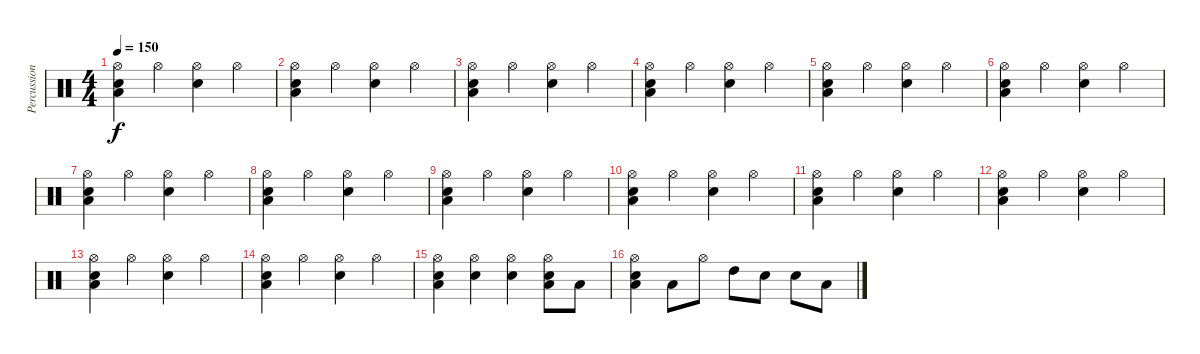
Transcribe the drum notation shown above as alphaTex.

\track ("Percussion" "Percussion") {instrument percussion}
\staff {score}
\articulation defaults
\ts (4 4)
\tempo 150
\clef neutral
\ks c
("Hi-Hat (open)" "Low Tom (hit)" "Electric Snare (hit)").4{dy f} "Hi-Hat (open)".4 ("Hi-Hat (open)" "Electric Snare (hit)").4 "Hi-Hat (open)".4 |
("Hi-Hat (open)" "Low Tom (hit)" "Electric Snare (hit)").4 "Hi-Hat (open)".4 ("Hi-Hat (open)" "Electric Snare (hit)").4 "Hi-Hat (open)".4 |
("Hi-Hat (open)" "Low Tom (hit)" "Electric Snare (hit)").4 "Hi-Hat (open)".4 ("Hi-Hat (open)" "Electric Snare (hit)").4 "Hi-Hat (open)".4 |
("Hi-Hat (open)" "Low Tom (hit)" "Electric Snare (hit)").4 "Hi-Hat (open)".4 ("Hi-Hat (open)" "Electric Snare (hit)").4 "Hi-Hat (open)".4 |
("Hi-Hat (open)" "Low Tom (hit)" "Electric Snare (hit)").4 "Hi-Hat (open)".4 ("Hi-Hat (open)" "Electric Snare (hit)").4 "Hi-Hat (open)".4 |
("Hi-Hat (open)" "Low Tom (hit)" "Electric Snare (hit)").4 "Hi-Hat (open)".4 ("Hi-Hat (open)" "Electric Snare (hit)").4 "Hi-Hat (open)".4 |
("Hi-Hat (open)" "Low Tom (hit)" "Electric Snare (hit)").4 "Hi-Hat (open)".4 ("Hi-Hat (open)" "Electric Snare (hit)").4 "Hi-Hat (open)".4 |
("Hi-Hat (open)" "Low Tom (hit)" "Electric Snare (hit)").4 "Hi-Hat (open)".4 ("Hi-Hat (open)" "Electric Snare (hit)").4 "Hi-Hat (open)".4 |
("Hi-Hat (open)" "Low Tom (hit)" "Electric Snare (hit)").4 "Hi-Hat (open)".4 ("Hi-Hat (open)" "Electric Snare (hit)").4 "Hi-Hat (open)".4 |
("Hi-Hat (open)" "Low Tom (hit)" "Electric Snare (hit)").4 "Hi-Hat (open)".4 ("Hi-Hat (open)" "Electric Snare (hit)").4 "Hi-Hat (open)".4 |
("Hi-Hat (open)" "Low Tom (hit)" "Electric Snare (hit)").4 "Hi-Hat (open)".4 ("Hi-Hat (open)" "Electric Snare (hit)").4 "Hi-Hat (open)".4 |
("Hi-Hat (open)" "Low Tom (hit)" "Electric Snare (hit)").4 "Hi-Hat (open)".4 ("Hi-Hat (open)" "Electric Snare (hit)").4 "Hi-Hat (open)".4 |
("Hi-Hat (open)" "Low Tom (hit)" "Electric Snare (hit)").4 "Hi-Hat (open)".4 ("Hi-Hat (open)" "Electric Snare (hit)").4 "Hi-Hat (open)".4 |
("Hi-Hat (open)" "Low Tom (hit)" "Electric Snare (hit)").4 "Hi-Hat (open)".4 ("Hi-Hat (open)" "Electric Snare (hit)").4 "Hi-Hat (open)".4 |
("Hi-Hat (open)" "Low Tom (hit)" "Electric Snare (hit)").4 ("Hi-Hat (open)" "Electric Snare (hit)").4 ("Hi-Hat (open)" "Electric Snare (hit)").4 ("Hi-Hat (open)" "Electric Snare (hit)" "Low Tom (hit)").8 "Low Tom (hit)".8 |
("Hi-Hat (open)" "Low Tom (hit)" "Electric Snare (hit)").4 "Low Tom (hit)".8 "Hi-Hat (open)".8 "High Tom (hit)".8 "Electric Snare (hit)".8 "Electric Snare (hit)".8 "Low Tom (hit)".8
